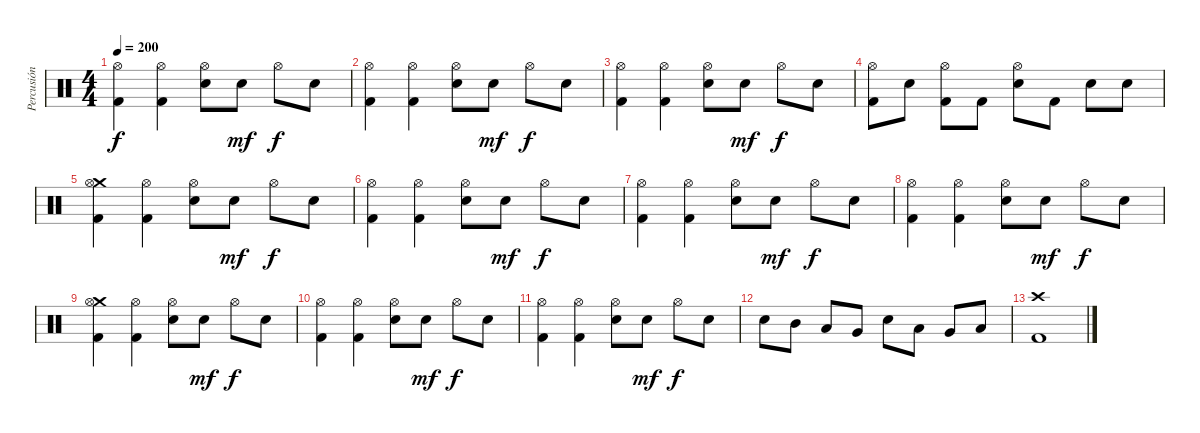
\track ("Percusión" "Percusión") {instrument percussion}
\staff {score}
\articulation defaults
\ts (4 4)
\tempo 200
\clef neutral
\ks c
("Hi-Hat (open)" "Kick (hit) 2").4{dy f} ("Hi-Hat (open)" "Kick (hit) 2").4 ("Hi-Hat (open)" "Electric Snare (hit)").8 "Electric Snare (hit)".8{dy mf} "Hi-Hat (open)".8{dy f} "Electric Snare (hit)".8 |
("Hi-Hat (open)" "Kick (hit) 2").4 ("Hi-Hat (open)" "Kick (hit) 2").4 ("Hi-Hat (open)" "Electric Snare (hit)").8 "Electric Snare (hit)".8{dy mf} "Hi-Hat (open)".8{dy f} "Electric Snare (hit)".8 |
("Hi-Hat (open)" "Kick (hit) 2").4 ("Hi-Hat (open)" "Kick (hit) 2").4 ("Hi-Hat (open)" "Electric Snare (hit)").8 "Electric Snare (hit)".8{dy mf} "Hi-Hat (open)".8{dy f} "Electric Snare (hit)".8 |
("Hi-Hat (open)" "Kick (hit) 2").8 "Electric Snare (hit)".8 ("Hi-Hat (open)" "Kick (hit) 2").8 "Kick (hit) 2".8 ("Hi-Hat (open)" "Electric Snare (hit)").8 "Kick (hit) 2".8 "Electric Snare (hit)".8 "Electric Snare (hit)".8 |
("Crash medium (hit)" "Hi-Hat (open)" "Kick (hit) 2").4 ("Hi-Hat (open)" "Kick (hit) 2").4 ("Hi-Hat (open)" "Electric Snare (hit)").8 "Electric Snare (hit)".8{dy mf} "Hi-Hat (open)".8{dy f} "Electric Snare (hit)".8 |
("Hi-Hat (open)" "Kick (hit) 2").4 ("Hi-Hat (open)" "Kick (hit) 2").4 ("Hi-Hat (open)" "Electric Snare (hit)").8 "Electric Snare (hit)".8{dy mf} "Hi-Hat (open)".8{dy f} "Electric Snare (hit)".8 |
("Hi-Hat (open)" "Kick (hit) 2").4 ("Hi-Hat (open)" "Kick (hit) 2").4 ("Hi-Hat (open)" "Electric Snare (hit)").8 "Electric Snare (hit)".8{dy mf} "Hi-Hat (open)".8{dy f} "Electric Snare (hit)".8 |
("Hi-Hat (open)" "Kick (hit) 2").4 ("Hi-Hat (open)" "Kick (hit) 2").4 ("Hi-Hat (open)" "Electric Snare (hit)").8 "Electric Snare (hit)".8{dy mf} "Hi-Hat (open)".8{dy f} "Electric Snare (hit)".8 |
("Crash medium (hit)" "Hi-Hat (open)" "Kick (hit) 2").4 ("Hi-Hat (open)" "Kick (hit) 2").4 ("Hi-Hat (open)" "Electric Snare (hit)").8 "Electric Snare (hit)".8{dy mf} "Hi-Hat (open)".8{dy f} "Electric Snare (hit)".8 |
("Hi-Hat (open)" "Kick (hit) 2").4 ("Hi-Hat (open)" "Kick (hit) 2").4 ("Hi-Hat (open)" "Electric Snare (hit)").8 "Electric Snare (hit)".8{dy mf} "Hi-Hat (open)".8{dy f} "Electric Snare (hit)".8 |
("Hi-Hat (open)" "Kick (hit) 2").4 ("Hi-Hat (open)" "Kick (hit) 2").4 ("Hi-Hat (open)" "Electric Snare (hit)").8 "Electric Snare (hit)".8{dy mf} "Hi-Hat (open)".8{dy f} "Electric Snare (hit)".8 |
"Electric Snare (hit)".8 "Mid Tom (hit)".8 "Low Tom (hit)".8 "Very Low Tom (hit)".8 "Electric Snare (hit)".8 "Low Tom (hit)".8 "Very Low Tom (hit)".8 "Low Floor Tom (hit)".8 |
("Crash high (hit)" "Kick (hit) 2").1
